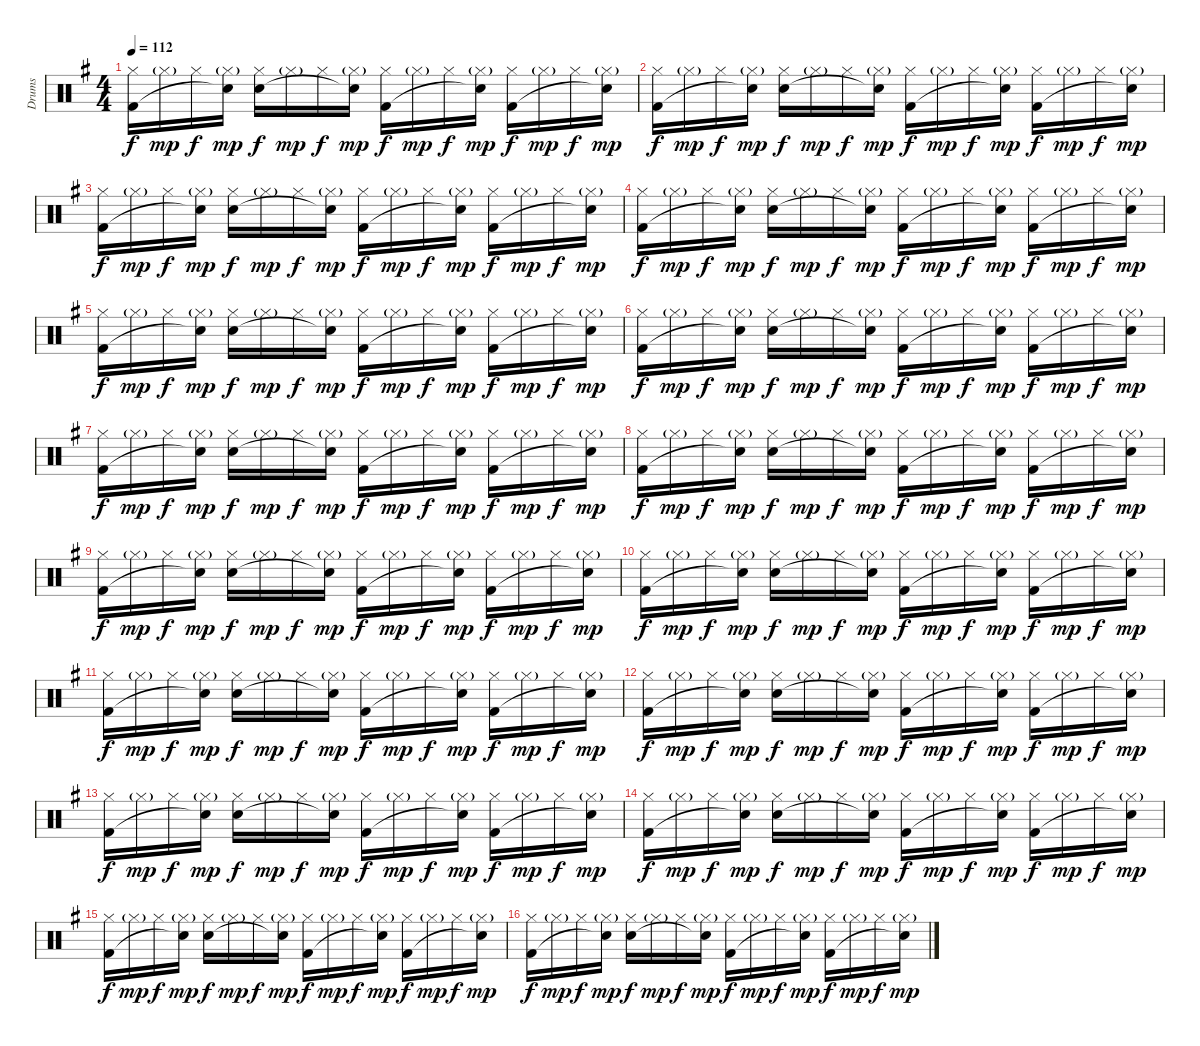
\track ("Drums" "Drums") {instrument percussion}
\staff {score}
\articulation defaults
\ts (4 4)
\tempo 112
\clef neutral
\ks g
("Hi-Hat (closed)" "Kick (hit) 2").16{dy f} "Hi-Hat (closed)"{g}.16{dy mp} "Hi-Hat (closed)".16{dy f} ("Hi-Hat (closed)"{g} "Snare (hit)"{t}).16{dy mp} ("Hi-Hat (closed)" "Electric Snare (hit)").16{dy f} "Hi-Hat (closed)"{g}.16{dy mp} "Hi-Hat (closed)".16{dy f} ("Hi-Hat (closed)"{g} "Snare (hit)"{t}).16{dy mp} ("Hi-Hat (closed)" "Kick (hit) 2").16{dy f} "Hi-Hat (closed)"{g}.16{dy mp} "Hi-Hat (closed)".16{dy f} ("Hi-Hat (closed)"{g} "Snare (hit)"{t}).16{dy mp} ("Hi-Hat (closed)" "Kick (hit) 2").16{dy f} "Hi-Hat (closed)"{g}.16{dy mp} "Hi-Hat (closed)".16{dy f} ("Hi-Hat (closed)"{g} "Snare (hit)"{t}).16{dy mp} |
("Hi-Hat (closed)" "Kick (hit) 2").16{dy f} "Hi-Hat (closed)"{g}.16{dy mp} "Hi-Hat (closed)".16{dy f} ("Hi-Hat (closed)"{g} "Snare (hit)"{t}).16{dy mp} ("Hi-Hat (closed)" "Electric Snare (hit)").16{dy f} "Hi-Hat (closed)"{g}.16{dy mp} "Hi-Hat (closed)".16{dy f} ("Hi-Hat (closed)"{g} "Snare (hit)"{t}).16{dy mp} ("Hi-Hat (closed)" "Kick (hit) 2").16{dy f} "Hi-Hat (closed)"{g}.16{dy mp} "Hi-Hat (closed)".16{dy f} ("Hi-Hat (closed)"{g} "Snare (hit)"{t}).16{dy mp} ("Hi-Hat (closed)" "Kick (hit) 2").16{dy f} "Hi-Hat (closed)"{g}.16{dy mp} "Hi-Hat (closed)".16{dy f} ("Hi-Hat (closed)"{g} "Snare (hit)"{t}).16{dy mp} |
("Hi-Hat (closed)" "Kick (hit) 2").16{dy f} "Hi-Hat (closed)"{g}.16{dy mp} "Hi-Hat (closed)".16{dy f} ("Hi-Hat (closed)"{g} "Snare (hit)"{t}).16{dy mp} ("Hi-Hat (closed)" "Electric Snare (hit)").16{dy f} "Hi-Hat (closed)"{g}.16{dy mp} "Hi-Hat (closed)".16{dy f} ("Hi-Hat (closed)"{g} "Snare (hit)"{t}).16{dy mp} ("Hi-Hat (closed)" "Kick (hit) 2").16{dy f} "Hi-Hat (closed)"{g}.16{dy mp} "Hi-Hat (closed)".16{dy f} ("Hi-Hat (closed)"{g} "Snare (hit)"{t}).16{dy mp} ("Hi-Hat (closed)" "Kick (hit) 2").16{dy f} "Hi-Hat (closed)"{g}.16{dy mp} "Hi-Hat (closed)".16{dy f} ("Hi-Hat (closed)"{g} "Snare (hit)"{t}).16{dy mp} |
("Hi-Hat (closed)" "Kick (hit) 2").16{dy f} "Hi-Hat (closed)"{g}.16{dy mp} "Hi-Hat (closed)".16{dy f} ("Hi-Hat (closed)"{g} "Snare (hit)"{t}).16{dy mp} ("Hi-Hat (closed)" "Electric Snare (hit)").16{dy f} "Hi-Hat (closed)"{g}.16{dy mp} "Hi-Hat (closed)".16{dy f} ("Hi-Hat (closed)"{g} "Snare (hit)"{t}).16{dy mp} ("Hi-Hat (closed)" "Kick (hit) 2").16{dy f} "Hi-Hat (closed)"{g}.16{dy mp} "Hi-Hat (closed)".16{dy f} ("Hi-Hat (closed)"{g} "Snare (hit)"{t}).16{dy mp} ("Hi-Hat (closed)" "Kick (hit) 2").16{dy f} "Hi-Hat (closed)"{g}.16{dy mp} "Hi-Hat (closed)".16{dy f} ("Hi-Hat (closed)"{g} "Snare (hit)"{t}).16{dy mp} |
("Hi-Hat (closed)" "Kick (hit) 2").16{dy f} "Hi-Hat (closed)"{g}.16{dy mp} "Hi-Hat (closed)".16{dy f} ("Hi-Hat (closed)"{g} "Snare (hit)"{t}).16{dy mp} ("Hi-Hat (closed)" "Electric Snare (hit)").16{dy f} "Hi-Hat (closed)"{g}.16{dy mp} "Hi-Hat (closed)".16{dy f} ("Hi-Hat (closed)"{g} "Snare (hit)"{t}).16{dy mp} ("Hi-Hat (closed)" "Kick (hit) 2").16{dy f} "Hi-Hat (closed)"{g}.16{dy mp} "Hi-Hat (closed)".16{dy f} ("Hi-Hat (closed)"{g} "Snare (hit)"{t}).16{dy mp} ("Hi-Hat (closed)" "Kick (hit) 2").16{dy f} "Hi-Hat (closed)"{g}.16{dy mp} "Hi-Hat (closed)".16{dy f} ("Hi-Hat (closed)"{g} "Snare (hit)"{t}).16{dy mp} |
("Hi-Hat (closed)" "Kick (hit) 2").16{dy f} "Hi-Hat (closed)"{g}.16{dy mp} "Hi-Hat (closed)".16{dy f} ("Hi-Hat (closed)"{g} "Snare (hit)"{t}).16{dy mp} ("Hi-Hat (closed)" "Electric Snare (hit)").16{dy f} "Hi-Hat (closed)"{g}.16{dy mp} "Hi-Hat (closed)".16{dy f} ("Hi-Hat (closed)"{g} "Snare (hit)"{t}).16{dy mp} ("Hi-Hat (closed)" "Kick (hit) 2").16{dy f} "Hi-Hat (closed)"{g}.16{dy mp} "Hi-Hat (closed)".16{dy f} ("Hi-Hat (closed)"{g} "Snare (hit)"{t}).16{dy mp} ("Hi-Hat (closed)" "Kick (hit) 2").16{dy f} "Hi-Hat (closed)"{g}.16{dy mp} "Hi-Hat (closed)".16{dy f} ("Hi-Hat (closed)"{g} "Snare (hit)"{t}).16{dy mp} |
("Hi-Hat (closed)" "Kick (hit) 2").16{dy f} "Hi-Hat (closed)"{g}.16{dy mp} "Hi-Hat (closed)".16{dy f} ("Hi-Hat (closed)"{g} "Snare (hit)"{t}).16{dy mp} ("Hi-Hat (closed)" "Electric Snare (hit)").16{dy f} "Hi-Hat (closed)"{g}.16{dy mp} "Hi-Hat (closed)".16{dy f} ("Hi-Hat (closed)"{g} "Snare (hit)"{t}).16{dy mp} ("Hi-Hat (closed)" "Kick (hit) 2").16{dy f} "Hi-Hat (closed)"{g}.16{dy mp} "Hi-Hat (closed)".16{dy f} ("Hi-Hat (closed)"{g} "Snare (hit)"{t}).16{dy mp} ("Hi-Hat (closed)" "Kick (hit) 2").16{dy f} "Hi-Hat (closed)"{g}.16{dy mp} "Hi-Hat (closed)".16{dy f} ("Hi-Hat (closed)"{g} "Snare (hit)"{t}).16{dy mp} |
("Hi-Hat (closed)" "Kick (hit) 2").16{dy f} "Hi-Hat (closed)"{g}.16{dy mp} "Hi-Hat (closed)".16{dy f} ("Hi-Hat (closed)"{g} "Snare (hit)"{t}).16{dy mp} ("Hi-Hat (closed)" "Electric Snare (hit)").16{dy f} "Hi-Hat (closed)"{g}.16{dy mp} "Hi-Hat (closed)".16{dy f} ("Hi-Hat (closed)"{g} "Snare (hit)"{t}).16{dy mp} ("Hi-Hat (closed)" "Kick (hit) 2").16{dy f} "Hi-Hat (closed)"{g}.16{dy mp} "Hi-Hat (closed)".16{dy f} ("Hi-Hat (closed)"{g} "Snare (hit)"{t}).16{dy mp} ("Hi-Hat (closed)" "Kick (hit) 2").16{dy f} "Hi-Hat (closed)"{g}.16{dy mp} "Hi-Hat (closed)".16{dy f} ("Hi-Hat (closed)"{g} "Snare (hit)"{t}).16{dy mp} |
("Hi-Hat (closed)" "Kick (hit) 2").16{dy f} "Hi-Hat (closed)"{g}.16{dy mp} "Hi-Hat (closed)".16{dy f} ("Hi-Hat (closed)"{g} "Snare (hit)"{t}).16{dy mp} ("Hi-Hat (closed)" "Electric Snare (hit)").16{dy f} "Hi-Hat (closed)"{g}.16{dy mp} "Hi-Hat (closed)".16{dy f} ("Hi-Hat (closed)"{g} "Snare (hit)"{t}).16{dy mp} ("Hi-Hat (closed)" "Kick (hit) 2").16{dy f} "Hi-Hat (closed)"{g}.16{dy mp} "Hi-Hat (closed)".16{dy f} ("Hi-Hat (closed)"{g} "Snare (hit)"{t}).16{dy mp} ("Hi-Hat (closed)" "Kick (hit) 2").16{dy f} "Hi-Hat (closed)"{g}.16{dy mp} "Hi-Hat (closed)".16{dy f} ("Hi-Hat (closed)"{g} "Snare (hit)"{t}).16{dy mp} |
("Hi-Hat (closed)" "Kick (hit) 2").16{dy f} "Hi-Hat (closed)"{g}.16{dy mp} "Hi-Hat (closed)".16{dy f} ("Hi-Hat (closed)"{g} "Snare (hit)"{t}).16{dy mp} ("Hi-Hat (closed)" "Electric Snare (hit)").16{dy f} "Hi-Hat (closed)"{g}.16{dy mp} "Hi-Hat (closed)".16{dy f} ("Hi-Hat (closed)"{g} "Snare (hit)"{t}).16{dy mp} ("Hi-Hat (closed)" "Kick (hit) 2").16{dy f} "Hi-Hat (closed)"{g}.16{dy mp} "Hi-Hat (closed)".16{dy f} ("Hi-Hat (closed)"{g} "Snare (hit)"{t}).16{dy mp} ("Hi-Hat (closed)" "Kick (hit) 2").16{dy f} "Hi-Hat (closed)"{g}.16{dy mp} "Hi-Hat (closed)".16{dy f} ("Hi-Hat (closed)"{g} "Snare (hit)"{t}).16{dy mp} |
("Hi-Hat (closed)" "Kick (hit) 2").16{dy f} "Hi-Hat (closed)"{g}.16{dy mp} "Hi-Hat (closed)".16{dy f} ("Hi-Hat (closed)"{g} "Snare (hit)"{t}).16{dy mp} ("Hi-Hat (closed)" "Electric Snare (hit)").16{dy f} "Hi-Hat (closed)"{g}.16{dy mp} "Hi-Hat (closed)".16{dy f} ("Hi-Hat (closed)"{g} "Snare (hit)"{t}).16{dy mp} ("Hi-Hat (closed)" "Kick (hit) 2").16{dy f} "Hi-Hat (closed)"{g}.16{dy mp} "Hi-Hat (closed)".16{dy f} ("Hi-Hat (closed)"{g} "Snare (hit)"{t}).16{dy mp} ("Hi-Hat (closed)" "Kick (hit) 2").16{dy f} "Hi-Hat (closed)"{g}.16{dy mp} "Hi-Hat (closed)".16{dy f} ("Hi-Hat (closed)"{g} "Snare (hit)"{t}).16{dy mp} |
("Hi-Hat (closed)" "Kick (hit) 2").16{dy f} "Hi-Hat (closed)"{g}.16{dy mp} "Hi-Hat (closed)".16{dy f} ("Hi-Hat (closed)"{g} "Snare (hit)"{t}).16{dy mp} ("Hi-Hat (closed)" "Electric Snare (hit)").16{dy f} "Hi-Hat (closed)"{g}.16{dy mp} "Hi-Hat (closed)".16{dy f} ("Hi-Hat (closed)"{g} "Snare (hit)"{t}).16{dy mp} ("Hi-Hat (closed)" "Kick (hit) 2").16{dy f} "Hi-Hat (closed)"{g}.16{dy mp} "Hi-Hat (closed)".16{dy f} ("Hi-Hat (closed)"{g} "Snare (hit)"{t}).16{dy mp} ("Hi-Hat (closed)" "Kick (hit) 2").16{dy f} "Hi-Hat (closed)"{g}.16{dy mp} "Hi-Hat (closed)".16{dy f} ("Hi-Hat (closed)"{g} "Snare (hit)"{t}).16{dy mp} |
("Hi-Hat (closed)" "Kick (hit) 2").16{dy f} "Hi-Hat (closed)"{g}.16{dy mp} "Hi-Hat (closed)".16{dy f} ("Hi-Hat (closed)"{g} "Snare (hit)"{t}).16{dy mp} ("Hi-Hat (closed)" "Electric Snare (hit)").16{dy f} "Hi-Hat (closed)"{g}.16{dy mp} "Hi-Hat (closed)".16{dy f} ("Hi-Hat (closed)"{g} "Snare (hit)"{t}).16{dy mp} ("Hi-Hat (closed)" "Kick (hit) 2").16{dy f} "Hi-Hat (closed)"{g}.16{dy mp} "Hi-Hat (closed)".16{dy f} ("Hi-Hat (closed)"{g} "Snare (hit)"{t}).16{dy mp} ("Hi-Hat (closed)" "Kick (hit) 2").16{dy f} "Hi-Hat (closed)"{g}.16{dy mp} "Hi-Hat (closed)".16{dy f} ("Hi-Hat (closed)"{g} "Snare (hit)"{t}).16{dy mp} |
("Hi-Hat (closed)" "Kick (hit) 2").16{dy f} "Hi-Hat (closed)"{g}.16{dy mp} "Hi-Hat (closed)".16{dy f} ("Hi-Hat (closed)"{g} "Snare (hit)"{t}).16{dy mp} ("Hi-Hat (closed)" "Electric Snare (hit)").16{dy f} "Hi-Hat (closed)"{g}.16{dy mp} "Hi-Hat (closed)".16{dy f} ("Hi-Hat (closed)"{g} "Snare (hit)"{t}).16{dy mp} ("Hi-Hat (closed)" "Kick (hit) 2").16{dy f} "Hi-Hat (closed)"{g}.16{dy mp} "Hi-Hat (closed)".16{dy f} ("Hi-Hat (closed)"{g} "Snare (hit)"{t}).16{dy mp} ("Hi-Hat (closed)" "Kick (hit) 2").16{dy f} "Hi-Hat (closed)"{g}.16{dy mp} "Hi-Hat (closed)".16{dy f} ("Hi-Hat (closed)"{g} "Snare (hit)"{t}).16{dy mp} |
("Hi-Hat (closed)" "Kick (hit) 2").16{dy f} "Hi-Hat (closed)"{g}.16{dy mp} "Hi-Hat (closed)".16{dy f} ("Hi-Hat (closed)"{g} "Snare (hit)"{t}).16{dy mp} ("Hi-Hat (closed)" "Electric Snare (hit)").16{dy f} "Hi-Hat (closed)"{g}.16{dy mp} "Hi-Hat (closed)".16{dy f} ("Hi-Hat (closed)"{g} "Snare (hit)"{t}).16{dy mp} ("Hi-Hat (closed)" "Kick (hit) 2").16{dy f} "Hi-Hat (closed)"{g}.16{dy mp} "Hi-Hat (closed)".16{dy f} ("Hi-Hat (closed)"{g} "Snare (hit)"{t}).16{dy mp} ("Hi-Hat (closed)" "Kick (hit) 2").16{dy f} "Hi-Hat (closed)"{g}.16{dy mp} "Hi-Hat (closed)".16{dy f} ("Hi-Hat (closed)"{g} "Snare (hit)"{t}).16{dy mp} |
("Hi-Hat (closed)" "Kick (hit) 2").16{dy f} "Hi-Hat (closed)"{g}.16{dy mp} "Hi-Hat (closed)".16{dy f} ("Hi-Hat (closed)"{g} "Snare (hit)"{t}).16{dy mp} ("Hi-Hat (closed)" "Electric Snare (hit)").16{dy f} "Hi-Hat (closed)"{g}.16{dy mp} "Hi-Hat (closed)".16{dy f} ("Hi-Hat (closed)"{g} "Snare (hit)"{t}).16{dy mp} ("Hi-Hat (closed)" "Kick (hit) 2").16{dy f} "Hi-Hat (closed)"{g}.16{dy mp} "Hi-Hat (closed)".16{dy f} ("Hi-Hat (closed)"{g} "Snare (hit)"{t}).16{dy mp} ("Hi-Hat (closed)" "Kick (hit) 2").16{dy f} "Hi-Hat (closed)"{g}.16{dy mp} "Hi-Hat (closed)".16{dy f} ("Hi-Hat (closed)"{g} "Snare (hit)"{t}).16{dy mp}
